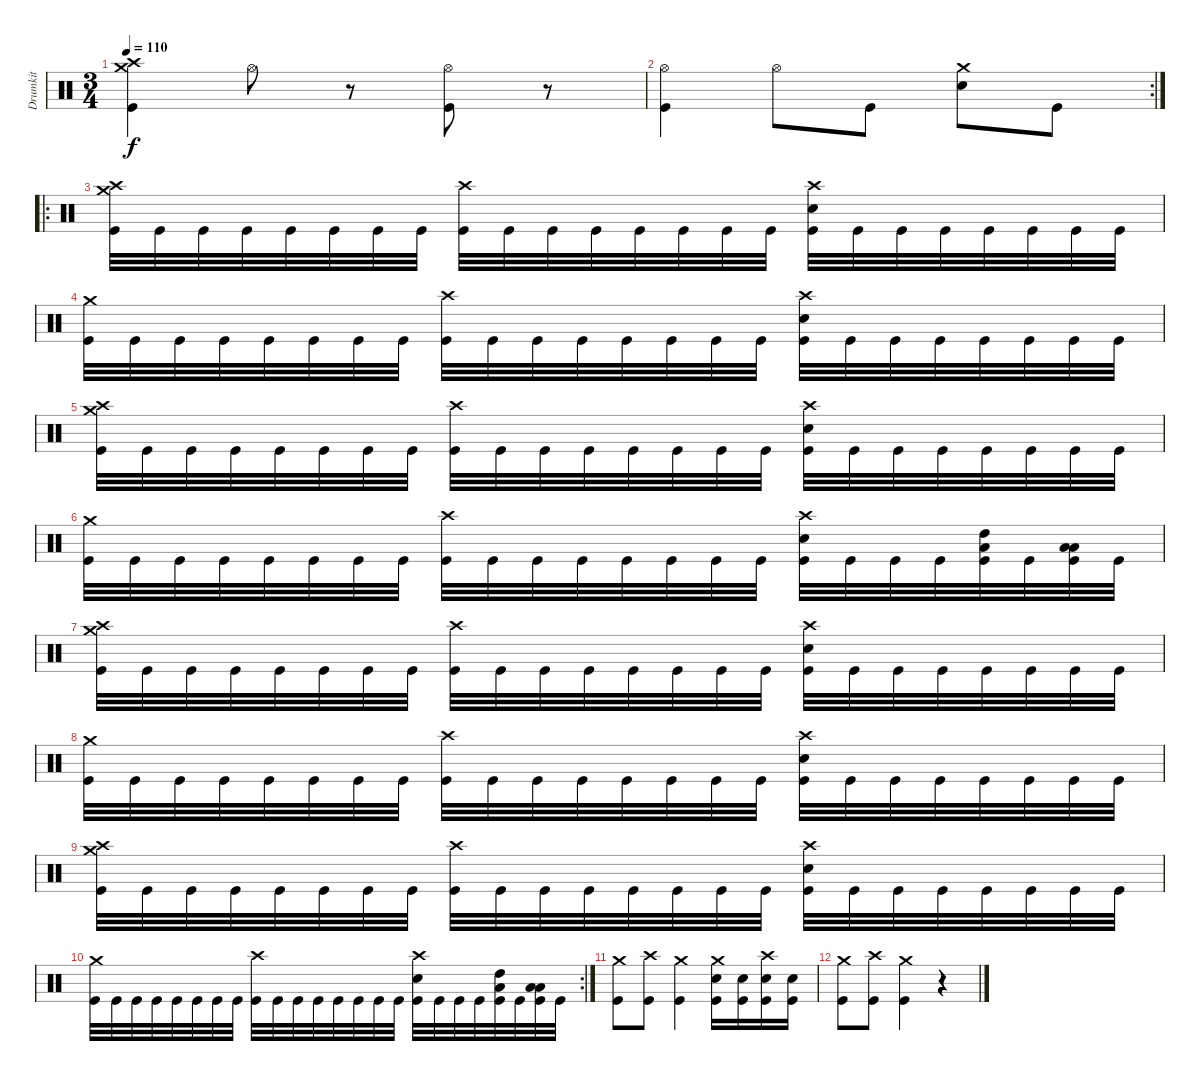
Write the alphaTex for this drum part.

\track ("Drumkit" "Drumkit") {instrument percussion}
\staff {score}
\articulation defaults
\ts (3 4)
\tempo 110
\clef neutral
\ks c
("Crash high (hit)" "Crash medium (hit)" "Kick (hit)").4{dy f} "Hi-Hat (open)".8 r.8 ("Hi-Hat (open)" "Kick (hit)").8 r.8 |
\rc 2
("Hi-Hat (open)" "Kick (hit)").4 "Hi-Hat (open)".8 "Kick (hit)".8 ("Crash medium (hit)" "Snare (hit) 2").8 "Kick (hit)".8 |
\ro
("Crash high (hit)" "Crash medium (hit)" "Kick (hit)").32 "Kick (hit)".32 "Kick (hit)".32 "Kick (hit)".32 "Kick (hit)".32 "Kick (hit)".32 "Kick (hit)".32 "Kick (hit)".32 ("Crash high (hit)" "Kick (hit)").32 "Kick (hit)".32 "Kick (hit)".32 "Kick (hit)".32 "Kick (hit)".32 "Kick (hit)".32 "Kick (hit)".32 "Kick (hit)".32 ("Crash high (hit)" "Snare (hit) 2" "Kick (hit)").32 "Kick (hit)".32 "Kick (hit)".32 "Kick (hit)".32 "Kick (hit)".32 "Kick (hit)".32 "Kick (hit)".32 "Kick (hit)".32 |
("Crash medium (hit)" "Kick (hit)").32 "Kick (hit)".32 "Kick (hit)".32 "Kick (hit)".32 "Kick (hit)".32 "Kick (hit)".32 "Kick (hit)".32 "Kick (hit)".32 ("Crash high (hit)" "Kick (hit)").32 "Kick (hit)".32 "Kick (hit)".32 "Kick (hit)".32 "Kick (hit)".32 "Kick (hit)".32 "Kick (hit)".32 "Kick (hit)".32 ("Crash high (hit)" "Snare (hit) 2" "Kick (hit)").32 "Kick (hit)".32 "Kick (hit)".32 "Kick (hit)".32 "Kick (hit)".32 "Kick (hit)".32 "Kick (hit)".32 "Kick (hit)".32 |
("Crash high (hit)" "Crash medium (hit)" "Kick (hit)").32 "Kick (hit)".32 "Kick (hit)".32 "Kick (hit)".32 "Kick (hit)".32 "Kick (hit)".32 "Kick (hit)".32 "Kick (hit)".32 ("Crash high (hit)" "Kick (hit)").32 "Kick (hit)".32 "Kick (hit)".32 "Kick (hit)".32 "Kick (hit)".32 "Kick (hit)".32 "Kick (hit)".32 "Kick (hit)".32 ("Crash high (hit)" "Snare (hit) 2" "Kick (hit)").32 "Kick (hit)".32 "Kick (hit)".32 "Kick (hit)".32 "Kick (hit)".32 "Kick (hit)".32 "Kick (hit)".32 "Kick (hit)".32 |
("Crash medium (hit)" "Kick (hit)").32 "Kick (hit)".32 "Kick (hit)".32 "Kick (hit)".32 "Kick (hit)".32 "Kick (hit)".32 "Kick (hit)".32 "Kick (hit)".32 ("Crash high (hit)" "Kick (hit)").32 "Kick (hit)".32 "Kick (hit)".32 "Kick (hit)".32 "Kick (hit)".32 "Kick (hit)".32 "Kick (hit)".32 "Kick (hit)".32 ("Crash high (hit)" "Snare (hit) 2" "Kick (hit)").32 "Kick (hit)".32 "Kick (hit)".32 "Kick (hit)".32 ("Low Tom (hit)" "High Tom (hit)" "Kick (hit)").32 "Kick (hit)".32 ("Low Tom (hit)" "Low Floor Tom (hit)" "Kick (hit)").32 "Kick (hit)".32 |
("Crash high (hit)" "Crash medium (hit)" "Kick (hit)").32 "Kick (hit)".32 "Kick (hit)".32 "Kick (hit)".32 "Kick (hit)".32 "Kick (hit)".32 "Kick (hit)".32 "Kick (hit)".32 ("Crash high (hit)" "Kick (hit)").32 "Kick (hit)".32 "Kick (hit)".32 "Kick (hit)".32 "Kick (hit)".32 "Kick (hit)".32 "Kick (hit)".32 "Kick (hit)".32 ("Crash high (hit)" "Snare (hit) 2" "Kick (hit)").32 "Kick (hit)".32 "Kick (hit)".32 "Kick (hit)".32 "Kick (hit)".32 "Kick (hit)".32 "Kick (hit)".32 "Kick (hit)".32 |
("Crash medium (hit)" "Kick (hit)").32 "Kick (hit)".32 "Kick (hit)".32 "Kick (hit)".32 "Kick (hit)".32 "Kick (hit)".32 "Kick (hit)".32 "Kick (hit)".32 ("Crash high (hit)" "Kick (hit)").32 "Kick (hit)".32 "Kick (hit)".32 "Kick (hit)".32 "Kick (hit)".32 "Kick (hit)".32 "Kick (hit)".32 "Kick (hit)".32 ("Crash high (hit)" "Snare (hit) 2" "Kick (hit)").32 "Kick (hit)".32 "Kick (hit)".32 "Kick (hit)".32 "Kick (hit)".32 "Kick (hit)".32 "Kick (hit)".32 "Kick (hit)".32 |
("Crash high (hit)" "Crash medium (hit)" "Kick (hit)").32 "Kick (hit)".32 "Kick (hit)".32 "Kick (hit)".32 "Kick (hit)".32 "Kick (hit)".32 "Kick (hit)".32 "Kick (hit)".32 ("Crash high (hit)" "Kick (hit)").32 "Kick (hit)".32 "Kick (hit)".32 "Kick (hit)".32 "Kick (hit)".32 "Kick (hit)".32 "Kick (hit)".32 "Kick (hit)".32 ("Crash high (hit)" "Snare (hit) 2" "Kick (hit)").32 "Kick (hit)".32 "Kick (hit)".32 "Kick (hit)".32 "Kick (hit)".32 "Kick (hit)".32 "Kick (hit)".32 "Kick (hit)".32 |
\rc 2
("Crash medium (hit)" "Kick (hit)").32 "Kick (hit)".32 "Kick (hit)".32 "Kick (hit)".32 "Kick (hit)".32 "Kick (hit)".32 "Kick (hit)".32 "Kick (hit)".32 ("Crash high (hit)" "Kick (hit)").32 "Kick (hit)".32 "Kick (hit)".32 "Kick (hit)".32 "Kick (hit)".32 "Kick (hit)".32 "Kick (hit)".32 "Kick (hit)".32 ("Crash high (hit)" "Snare (hit) 2" "Kick (hit)").32 "Kick (hit)".32 "Kick (hit)".32 "Kick (hit)".32 ("Low Tom (hit)" "High Tom (hit)" "Kick (hit)").32 "Kick (hit)".32 ("Low Tom (hit)" "Low Floor Tom (hit)" "Kick (hit)").32 "Kick (hit)".32 |
("Crash medium (hit)" "Kick (hit)").8 ("Crash high (hit)" "Kick (hit)").8 ("Crash medium (hit)" "Kick (hit)").4 ("Crash medium (hit)" "Snare (hit) 2" "Kick (hit)").16 ("Snare (hit) 2" "Kick (hit)").16 ("Crash high (hit)" "Snare (hit) 2" "Kick (hit)").16 ("Snare (hit) 2" "Kick (hit)").16 |
("Crash medium (hit)" "Kick (hit)").8 ("Crash high (hit)" "Kick (hit)").8 ("Crash medium (hit)" "Kick (hit)").4 r.4
